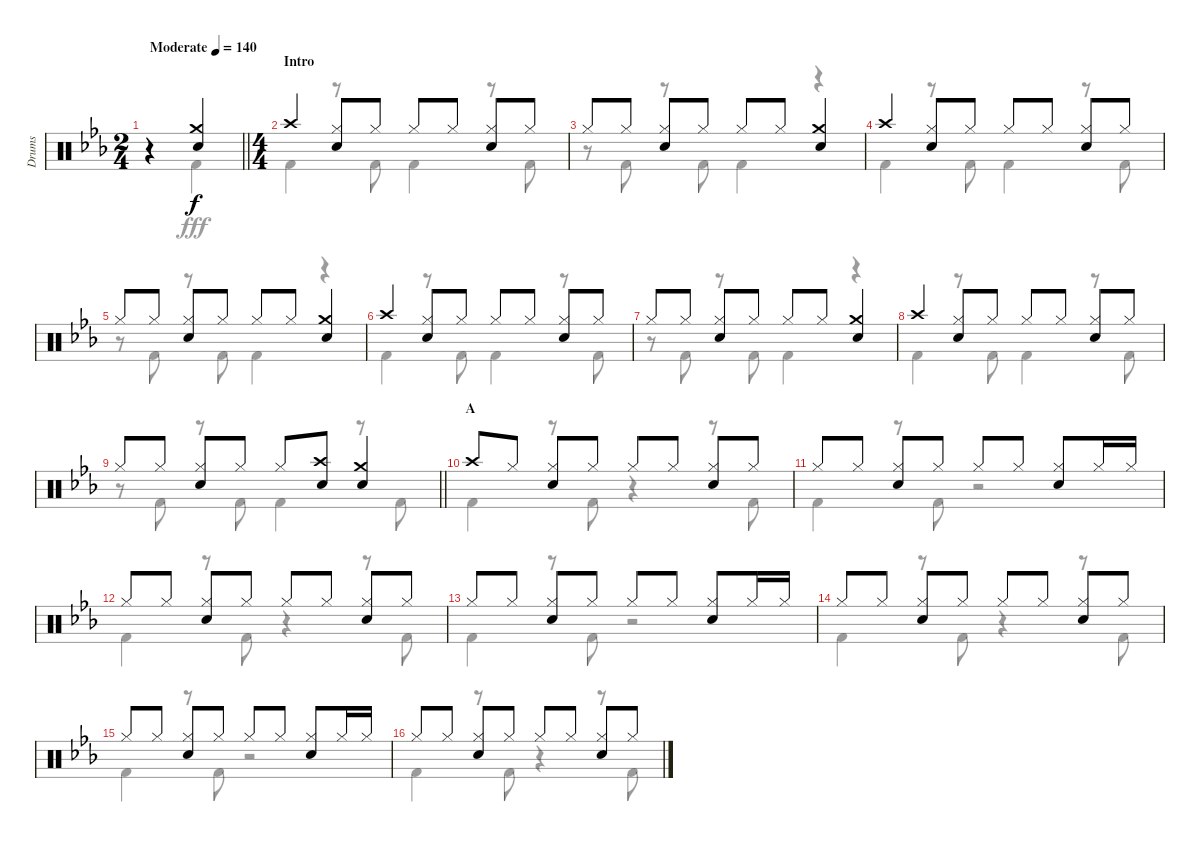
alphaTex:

\track ("Drums" "Drums") {instrument percussion}
\staff {score}
\articulation defaults
\voice
\ts (2 4)
\tempo (140 "Moderate")
\clef neutral
\barLineRight lightlight
\ks eb
r.4{dy f} ("Crash medium (hit)" "Snare (hit) 2").4 |
\ts (4 4)
\section ("" "Intro")
"Crash high (hit)".4 ("Hi-Hat (closed)" "Snare (hit) 2").8 "Hi-Hat (closed)".8 "Hi-Hat (closed)".8 "Hi-Hat (closed)".8 ("Hi-Hat (closed)" "Snare (hit) 2").8 "Hi-Hat (closed)".8 |
"Hi-Hat (closed)".8 "Hi-Hat (closed)".8 ("Hi-Hat (closed)" "Snare (hit) 2").8 "Hi-Hat (closed)".8 "Hi-Hat (closed)".8 "Hi-Hat (closed)".8 ("Crash medium (hit)" "Snare (hit) 2").4 |
"Crash high (hit)".4 ("Hi-Hat (closed)" "Snare (hit) 2").8 "Hi-Hat (closed)".8 "Hi-Hat (closed)".8 "Hi-Hat (closed)".8 ("Hi-Hat (closed)" "Snare (hit) 2").8 "Hi-Hat (closed)".8 |
"Hi-Hat (closed)".8 "Hi-Hat (closed)".8 ("Hi-Hat (closed)" "Snare (hit) 2").8 "Hi-Hat (closed)".8 "Hi-Hat (closed)".8 "Hi-Hat (closed)".8 ("Crash medium (hit)" "Snare (hit) 2").4 |
"Crash high (hit)".4 ("Hi-Hat (closed)" "Snare (hit) 2").8 "Hi-Hat (closed)".8 "Hi-Hat (closed)".8 "Hi-Hat (closed)".8 ("Hi-Hat (closed)" "Snare (hit) 2").8 "Hi-Hat (closed)".8 |
"Hi-Hat (closed)".8 "Hi-Hat (closed)".8 ("Hi-Hat (closed)" "Snare (hit) 2").8 "Hi-Hat (closed)".8 "Hi-Hat (closed)".8 "Hi-Hat (closed)".8 ("Crash medium (hit)" "Snare (hit) 2").4 |
"Crash high (hit)".4 ("Hi-Hat (closed)" "Snare (hit) 2").8 "Hi-Hat (closed)".8 "Hi-Hat (closed)".8 "Hi-Hat (closed)".8 ("Hi-Hat (closed)" "Snare (hit) 2").8 "Hi-Hat (closed)".8 |
\barLineRight lightlight "Hi-Hat (closed)".8 "Hi-Hat (closed)".8
("Hi-Hat (closed)" "Snare (hit) 2").8 "Hi-Hat (closed)".8 "Hi-Hat (closed)".8 ("Crash high (hit)" "Snare (hit) 2").8 ("Crash medium (hit)" "Snare (hit) 2").4 |
\section ("" "A")
"Crash high (hit)".8 "Hi-Hat (closed)".8 ("Hi-Hat (closed)" "Snare (hit) 2").8 "Hi-Hat (closed)".8 "Hi-Hat (closed)".8 "Hi-Hat (closed)".8 ("Hi-Hat (closed)" "Snare (hit) 2").8 "Hi-Hat (closed)".8 |
"Hi-Hat (closed)".8 "Hi-Hat (closed)".8 ("Hi-Hat (closed)" "Snare (hit) 2").8 "Hi-Hat (closed)".8 "Hi-Hat (closed)".8 "Hi-Hat (closed)".8 ("Hi-Hat (closed)" "Snare (hit) 2").8 "Hi-Hat (closed)".16 "Hi-Hat (closed)".16 |
"Hi-Hat (closed)".8 "Hi-Hat (closed)".8 ("Hi-Hat (closed)" "Snare (hit) 2").8 "Hi-Hat (closed)".8 "Hi-Hat (closed)".8 "Hi-Hat (closed)".8 ("Hi-Hat (closed)" "Snare (hit) 2").8 "Hi-Hat (closed)".8 |
"Hi-Hat (closed)".8 "Hi-Hat (closed)".8 ("Hi-Hat (closed)" "Snare (hit) 2").8 "Hi-Hat (closed)".8 "Hi-Hat (closed)".8 "Hi-Hat (closed)".8 ("Hi-Hat (closed)" "Snare (hit) 2").8 "Hi-Hat (closed)".16 "Hi-Hat (closed)".16 |
"Hi-Hat (closed)".8 "Hi-Hat (closed)".8 ("Hi-Hat (closed)" "Snare (hit) 2").8 "Hi-Hat (closed)".8 "Hi-Hat (closed)".8 "Hi-Hat (closed)".8 ("Hi-Hat (closed)" "Snare (hit) 2").8 "Hi-Hat (closed)".8 |
"Hi-Hat (closed)".8 "Hi-Hat (closed)".8 ("Hi-Hat (closed)" "Snare (hit) 2").8 "Hi-Hat (closed)".8 "Hi-Hat (closed)".8 "Hi-Hat (closed)".8 ("Hi-Hat (closed)" "Snare (hit) 2").8 "Hi-Hat (closed)".16 "Hi-Hat (closed)".16 |
"Hi-Hat (closed)".8 "Hi-Hat (closed)".8 ("Hi-Hat (closed)" "Snare (hit) 2").8 "Hi-Hat (closed)".8 "Hi-Hat (closed)".8 "Hi-Hat (closed)".8 ("Hi-Hat (closed)" "Snare (hit) 2").8 "Hi-Hat (closed)".8
\voice
\clef neutral
\ottava regular
\simile none
\barLineRight lightlight
\ks eb
r.4{dy fff} "Kick (hit) 2".4 |
"Kick (hit) 2".4 r.8 "Kick (hit) 2".8 "Kick (hit) 2".4 r.8 "Kick (hit) 2".8 |
r.8 "Kick (hit) 2".8 r.8 "Kick (hit) 2".8 "Kick (hit) 2".4 r.4 |
"Kick (hit) 2".4 r.8 "Kick (hit) 2".8 "Kick (hit) 2".4 r.8 "Kick (hit) 2".8 |
r.8 "Kick (hit) 2".8 r.8 "Kick (hit) 2".8 "Kick (hit) 2".4 r.4 |
"Kick (hit) 2".4 r.8 "Kick (hit) 2".8 "Kick (hit) 2".4 r.8 "Kick (hit) 2".8 |
r.8 "Kick (hit) 2".8 r.8 "Kick (hit) 2".8 "Kick (hit) 2".4 r.4 |
"Kick (hit) 2".4 r.8 "Kick (hit) 2".8 "Kick (hit) 2".4 r.8 "Kick (hit) 2".8 |
\barLineRight lightlight
r.8 "Kick (hit) 2".8 r.8 "Kick (hit) 2".8 "Kick (hit) 2".4 r.8 "Kick (hit) 2".8 |
"Kick (hit) 2".4 r.8 "Kick (hit) 2".8 r.4 r.8 "Kick (hit) 2".8 |
"Kick (hit) 2".4 r.8 "Kick (hit) 2".8 r.2 |
"Kick (hit) 2".4 r.8 "Kick (hit) 2".8 r.4 r.8 "Kick (hit) 2".8 |
"Kick (hit) 2".4 r.8 "Kick (hit) 2".8 r.2 |
"Kick (hit) 2".4 r.8 "Kick (hit) 2".8 r.4 r.8 "Kick (hit) 2".8 |
"Kick (hit) 2".4 r.8 "Kick (hit) 2".8 r.2 |
"Kick (hit) 2".4 r.8 "Kick (hit) 2".8 r.4 r.8 "Kick (hit) 2".8
